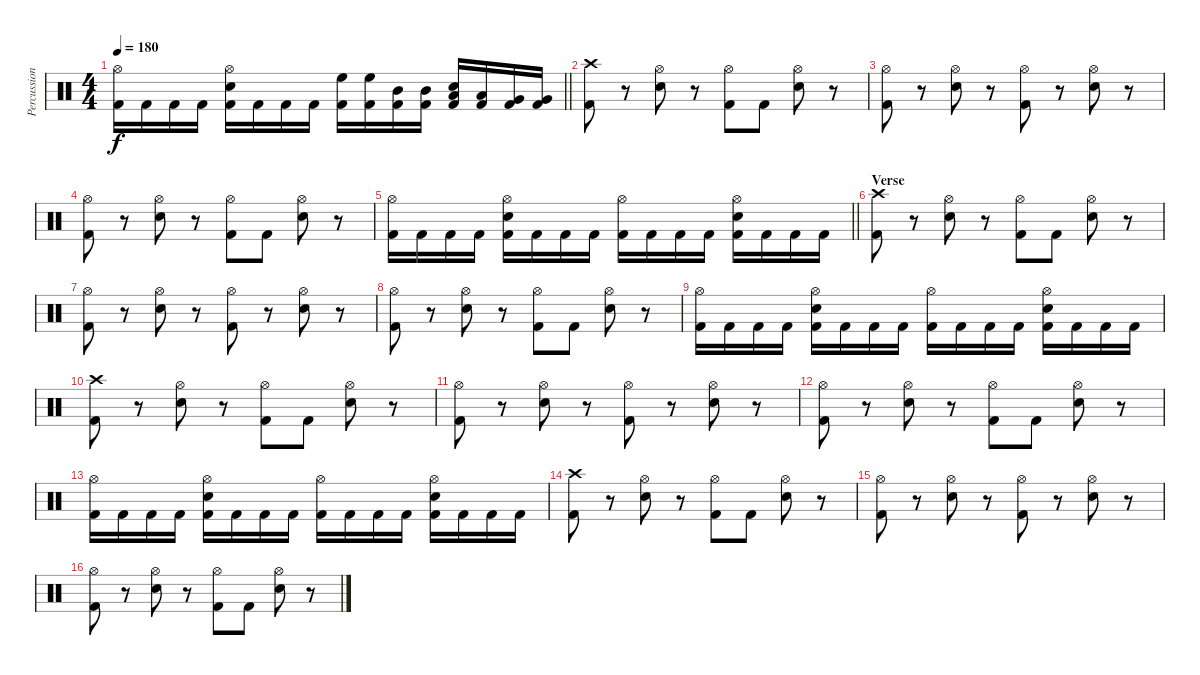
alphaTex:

\track ("Percussion" "Percussion") {instrument percussion}
\staff {score}
\articulation defaults
\ts (4 4)
\tempo 180
\clef neutral
\barLineRight lightlight
\ks c
("Hi-Hat (open)" "Kick (hit) 2").16{dy f} "Kick (hit) 2".16 "Kick (hit) 2".16 "Kick (hit) 2".16 ("Hi-Hat (open)" "Snare (hit) 2" "Kick (hit) 2").16 "Kick (hit) 2".16 "Kick (hit) 2".16 "Kick (hit) 2".16 ("High Floor Tom (hit)" "Kick (hit) 2").16 ("High Floor Tom (hit)" "Kick (hit) 2").16 ("Mid Tom (hit)" "Kick (hit) 2").16 ("Mid Tom (hit)" "Kick (hit) 2").16 ("Low Tom (hit)" "Snare (hit) 2" "Kick (hit) 2").16 ("Low Tom (hit)" "Kick (hit) 2").16 ("Very Low Tom (hit)" "Kick (hit) 2").16 ("Very Low Tom (hit)" "Kick (hit) 2").16 |
("Crash high (hit)" "Kick (hit) 2").8 r.8 ("Hi-Hat (open)" "Snare (hit) 2").8 r.8 ("Hi-Hat (open)" "Kick (hit) 2").8 "Kick (hit) 2".8 ("Hi-Hat (open)" "Snare (hit) 2").8 r.8 |
("Hi-Hat (open)" "Kick (hit) 2").8 r.8 ("Hi-Hat (open)" "Snare (hit) 2").8 r.8 ("Hi-Hat (open)" "Kick (hit) 2").8 r.8 ("Hi-Hat (open)" "Snare (hit) 2").8 r.8 |
("Hi-Hat (open)" "Kick (hit) 2").8 r.8 ("Hi-Hat (open)" "Snare (hit) 2").8 r.8 ("Hi-Hat (open)" "Kick (hit) 2").8 "Kick (hit) 2".8 ("Hi-Hat (open)" "Snare (hit) 2").8 r.8 |
\barLineRight lightlight
("Hi-Hat (open)" "Kick (hit) 2").16 "Kick (hit) 2".16 "Kick (hit) 2".16 "Kick (hit) 2".16 ("Hi-Hat (open)" "Snare (hit) 2" "Kick (hit) 2").16 "Kick (hit) 2".16 "Kick (hit) 2".16 "Kick (hit) 2".16 ("Hi-Hat (open)" "Kick (hit) 2").16 "Kick (hit) 2".16 "Kick (hit) 2".16 "Kick (hit) 2".16 ("Hi-Hat (open)" "Snare (hit) 2" "Kick (hit) 2").16 "Kick (hit) 2".16 "Kick (hit) 2".16 "Kick (hit) 2".16 |
\section ("" "Verse")
("Crash high (hit)" "Kick (hit) 2").8 r.8 ("Hi-Hat (open)" "Snare (hit) 2").8 r.8 ("Hi-Hat (open)" "Kick (hit) 2").8 "Kick (hit) 2".8 ("Hi-Hat (open)" "Snare (hit) 2").8 r.8 |
("Hi-Hat (open)" "Kick (hit) 2").8 r.8 ("Hi-Hat (open)" "Snare (hit) 2").8 r.8 ("Hi-Hat (open)" "Kick (hit) 2").8 r.8 ("Hi-Hat (open)" "Snare (hit) 2").8 r.8 |
("Hi-Hat (open)" "Kick (hit) 2").8 r.8 ("Hi-Hat (open)" "Snare (hit) 2").8 r.8 ("Hi-Hat (open)" "Kick (hit) 2").8 "Kick (hit) 2".8 ("Hi-Hat (open)" "Snare (hit) 2").8 r.8 |
("Hi-Hat (open)" "Kick (hit) 2").16 "Kick (hit) 2".16 "Kick (hit) 2".16 "Kick (hit) 2".16 ("Hi-Hat (open)" "Snare (hit) 2" "Kick (hit) 2").16 "Kick (hit) 2".16 "Kick (hit) 2".16 "Kick (hit) 2".16 ("Hi-Hat (open)" "Kick (hit) 2").16 "Kick (hit) 2".16 "Kick (hit) 2".16 "Kick (hit) 2".16 ("Hi-Hat (open)" "Snare (hit) 2" "Kick (hit) 2").16 "Kick (hit) 2".16 "Kick (hit) 2".16 "Kick (hit) 2".16 |
("Crash high (hit)" "Kick (hit) 2").8 r.8 ("Hi-Hat (open)" "Snare (hit) 2").8 r.8 ("Hi-Hat (open)" "Kick (hit) 2").8 "Kick (hit) 2".8 ("Hi-Hat (open)" "Snare (hit) 2").8 r.8 |
("Hi-Hat (open)" "Kick (hit) 2").8 r.8 ("Hi-Hat (open)" "Snare (hit) 2").8 r.8 ("Hi-Hat (open)" "Kick (hit) 2").8 r.8 ("Hi-Hat (open)" "Snare (hit) 2").8 r.8 |
("Hi-Hat (open)" "Kick (hit) 2").8 r.8 ("Hi-Hat (open)" "Snare (hit) 2").8 r.8 ("Hi-Hat (open)" "Kick (hit) 2").8 "Kick (hit) 2".8 ("Hi-Hat (open)" "Snare (hit) 2").8 r.8 |
("Hi-Hat (open)" "Kick (hit) 2").16 "Kick (hit) 2".16 "Kick (hit) 2".16 "Kick (hit) 2".16 ("Hi-Hat (open)" "Snare (hit) 2" "Kick (hit) 2").16 "Kick (hit) 2".16 "Kick (hit) 2".16 "Kick (hit) 2".16 ("Hi-Hat (open)" "Kick (hit) 2").16 "Kick (hit) 2".16 "Kick (hit) 2".16 "Kick (hit) 2".16 ("Hi-Hat (open)" "Snare (hit) 2" "Kick (hit) 2").16 "Kick (hit) 2".16 "Kick (hit) 2".16 "Kick (hit) 2".16 |
("Crash high (hit)" "Kick (hit) 2").8 r.8 ("Hi-Hat (open)" "Snare (hit) 2").8 r.8 ("Hi-Hat (open)" "Kick (hit) 2").8 "Kick (hit) 2".8 ("Hi-Hat (open)" "Snare (hit) 2").8 r.8 |
("Hi-Hat (open)" "Kick (hit) 2").8 r.8 ("Hi-Hat (open)" "Snare (hit) 2").8 r.8 ("Hi-Hat (open)" "Kick (hit) 2").8 r.8 ("Hi-Hat (open)" "Snare (hit) 2").8 r.8 |
("Hi-Hat (open)" "Kick (hit) 2").8 r.8 ("Hi-Hat (open)" "Snare (hit) 2").8 r.8 ("Hi-Hat (open)" "Kick (hit) 2").8 "Kick (hit) 2".8 ("Hi-Hat (open)" "Snare (hit) 2").8 r.8
